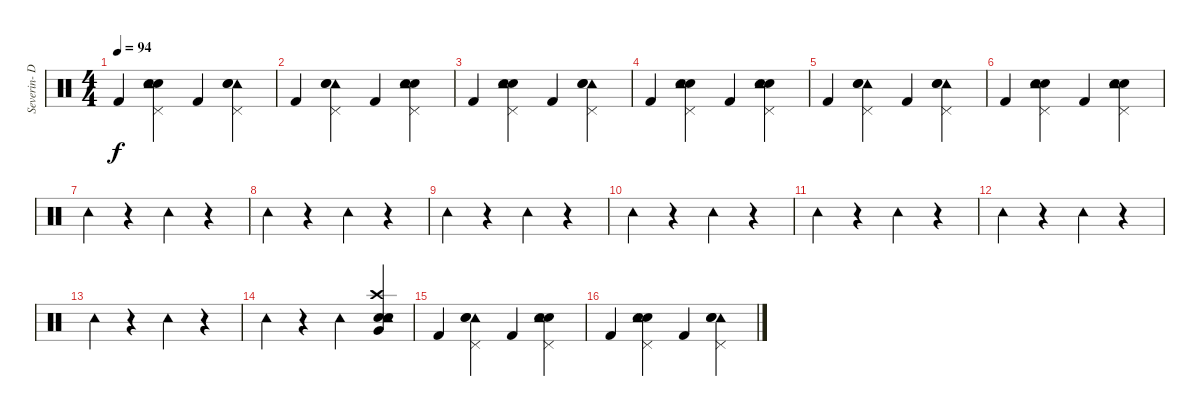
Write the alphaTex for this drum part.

\track ("Severin- Drums" "Severin- D") {instrument percussion}
\staff {score}
\articulation defaults
\ts (4 4)
\tempo 94
\clef neutral
\ks c "Kick (hit) 2".4{dy f}
("Snare (hit) 2" "Electric Snare (hit)" "Pedal Hi-Hat (hit)" "Tambourine (hit)").4 "Kick (hit) 2".4 ("Tambourine (hit)" "Pedal Hi-Hat (hit)" "Electric Snare (hit)" "Snare (hit) 2").4 |
"Kick (hit) 2".4 ("Tambourine (hit)" "Electric Snare (hit)" "Snare (hit) 2" "Pedal Hi-Hat (hit)").4 "Kick (hit) 2".4 ("Snare (hit) 2" "Electric Snare (hit)" "Pedal Hi-Hat (hit)" "Tambourine (hit)").4 |
"Kick (hit) 2".4 ("Snare (hit) 2" "Electric Snare (hit)" "Pedal Hi-Hat (hit)" "Tambourine (hit)").4 "Kick (hit) 2".4 ("Tambourine (hit)" "Pedal Hi-Hat (hit)" "Electric Snare (hit)" "Snare (hit) 2").4 |
"Kick (hit) 2".4 ("Pedal Hi-Hat (hit)" "Snare (hit) 2" "Electric Snare (hit)" "Tambourine (hit)").4 "Kick (hit) 2".4 ("Snare (hit) 2" "Electric Snare (hit)" "Pedal Hi-Hat (hit)" "Tambourine (hit)").4 |
"Kick (hit) 2".4 ("Tambourine (hit)" "Pedal Hi-Hat (hit)" "Electric Snare (hit)" "Snare (hit) 2").4 "Kick (hit) 2".4 ("Tambourine (hit)" "Pedal Hi-Hat (hit)" "Electric Snare (hit)" "Snare (hit) 2").4 |
"Kick (hit) 2".4 ("Pedal Hi-Hat (hit)" "Snare (hit) 2" "Electric Snare (hit)" "Tambourine (hit)").4 "Kick (hit) 2".4 ("Snare (hit) 2" "Electric Snare (hit)" "Pedal Hi-Hat (hit)" "Tambourine (hit)").4 |
"Tambourine (hit)".4 r.4 "Tambourine (hit)".4 r.4 |
"Tambourine (hit)".4 r.4 "Tambourine (hit)".4 r.4 |
"Tambourine (hit)".4 r.4 "Tambourine (hit)".4 r.4 |
"Tambourine (hit)".4 r.4 "Tambourine (hit)".4 r.4 |
"Tambourine (hit)".4 r.4 "Tambourine (hit)".4 r.4 |
"Tambourine (hit)".4 r.4 "Tambourine (hit)".4 r.4 |
"Tambourine (hit)".4 r.4 "Tambourine (hit)".4 r.4 |
"Tambourine (hit)".4 r.4 "Tambourine (hit)".4 ("Snare (hit) 2" "Electric Snare (hit)" "Tambourine (hit)" "Crash high (hit)" "Very Low Tom (hit)").4 |
"Kick (hit) 2".4 ("Tambourine (hit)" "Pedal Hi-Hat (hit)" "Electric Snare (hit)" "Snare (hit) 2").4 "Kick (hit) 2".4 ("Snare (hit) 2" "Electric Snare (hit)" "Pedal Hi-Hat (hit)" "Tambourine (hit)").4 |
"Kick (hit) 2".4 ("Snare (hit) 2" "Electric Snare (hit)" "Pedal Hi-Hat (hit)" "Tambourine (hit)").4 "Kick (hit) 2".4 ("Tambourine (hit)" "Electric Snare (hit)" "Snare (hit) 2" "Pedal Hi-Hat (hit)").4
